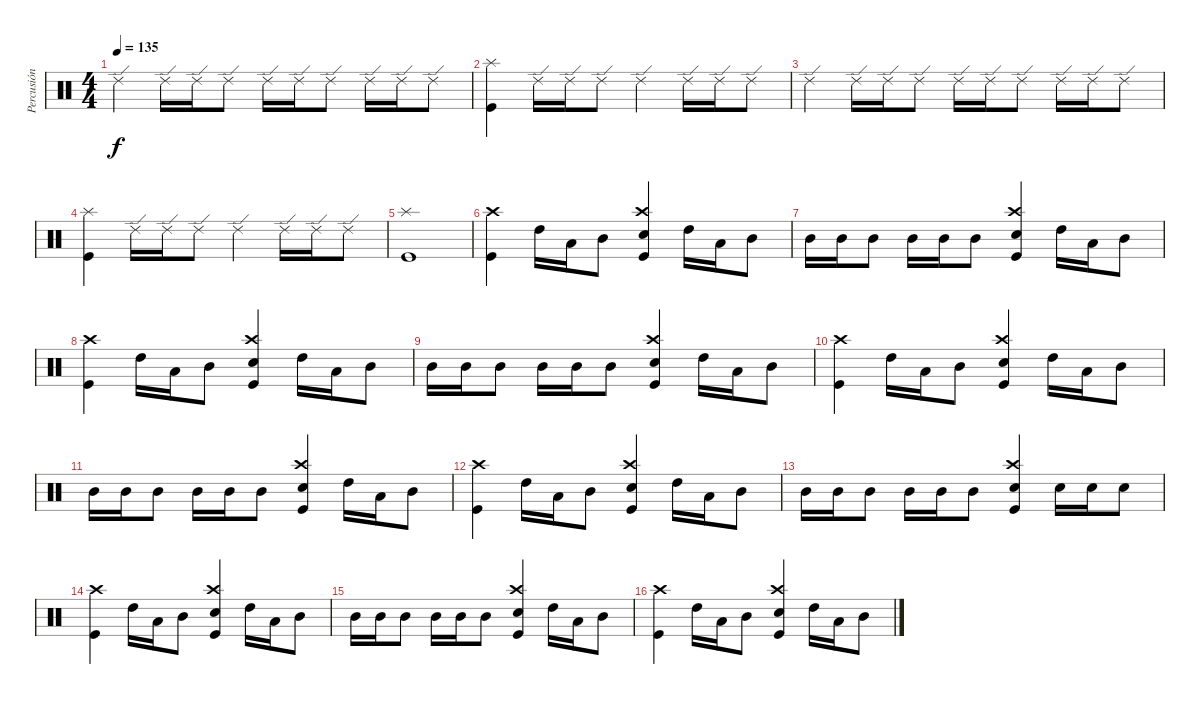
\track ("Percusión" "Percusión") {instrument percussion}
\staff {score}
\articulation defaults
\ts (4 4)
\tempo 135
\clef neutral
\ks c "Ride (edge) 2".4{dy f} "Ride (edge) 2".16 "Ride (edge) 2".16 "Ride (edge) 2".8 "Ride (edge) 2".16 "Ride (edge) 2".16 "Ride (edge) 2".8 "Ride (edge) 2".16 "Ride (edge) 2".16 "Ride (edge) 2".8
|
("Splash (hit)" "Kick (hit)").4 "Ride (edge) 2".16 "Ride (edge) 2".16 "Ride (edge) 2".8 "Ride (edge) 2".4 "Ride (edge) 2".16 "Ride (edge) 2".16 "Ride (edge) 2".8 |
"Ride (edge) 2".4 "Ride (edge) 2".16 "Ride (edge) 2".16 "Ride (edge) 2".8 "Ride (edge) 2".16 "Ride (edge) 2".16 "Ride (edge) 2".8 "Ride (edge) 2".16 "Ride (edge) 2".16 "Ride (edge) 2".8 |
("Splash (hit)" "Kick (hit)").4 "Ride (edge) 2".16 "Ride (edge) 2".16 "Ride (edge) 2".8 "Ride (edge) 2".4 "Ride (edge) 2".16 "Ride (edge) 2".16 "Ride (edge) 2".8 |
("Splash (hit)" "Kick (hit)").1 |
("Crash high (hit)" "Kick (hit)").4 "High Tom (hit)".16 "Low Floor Tom (hit)".16 "Mid Tom (hit)".8 ("Crash high (hit)" "Kick (hit)" "Electric Snare (hit)").4 "High Tom (hit)".16 "Low Floor Tom (hit)".16 "Mid Tom (hit)".8 |
"Mid Tom (hit)".16 "Mid Tom (hit)".16 "Mid Tom (hit)".8 "Mid Tom (hit)".16 "Mid Tom (hit)".16 "Mid Tom (hit)".8 ("Crash high (hit)" "Kick (hit)" "Electric Snare (hit)").4 "High Tom (hit)".16 "Low Floor Tom (hit)".16 "Mid Tom (hit)".8 |
("Crash high (hit)" "Kick (hit)").4 "High Tom (hit)".16 "Low Floor Tom (hit)".16 "Mid Tom (hit)".8 ("Crash high (hit)" "Kick (hit)" "Electric Snare (hit)").4 "High Tom (hit)".16 "Low Floor Tom (hit)".16 "Mid Tom (hit)".8 |
"Mid Tom (hit)".16 "Mid Tom (hit)".16 "Mid Tom (hit)".8 "Mid Tom (hit)".16 "Mid Tom (hit)".16 "Mid Tom (hit)".8 ("Crash high (hit)" "Kick (hit)" "Electric Snare (hit)").4 "High Tom (hit)".16 "Low Floor Tom (hit)".16 "Mid Tom (hit)".8 |
("Crash high (hit)" "Kick (hit)").4 "High Tom (hit)".16 "Low Floor Tom (hit)".16 "Mid Tom (hit)".8 ("Crash high (hit)" "Kick (hit)" "Electric Snare (hit)").4 "High Tom (hit)".16 "Low Floor Tom (hit)".16 "Mid Tom (hit)".8 |
"Mid Tom (hit)".16 "Mid Tom (hit)".16 "Mid Tom (hit)".8 "Mid Tom (hit)".16 "Mid Tom (hit)".16 "Mid Tom (hit)".8 ("Crash high (hit)" "Kick (hit)" "Electric Snare (hit)").4 "High Tom (hit)".16 "Low Floor Tom (hit)".16 "Mid Tom (hit)".8 |
("Crash high (hit)" "Kick (hit)").4 "High Tom (hit)".16 "Low Floor Tom (hit)".16 "Mid Tom (hit)".8 ("Crash high (hit)" "Kick (hit)" "Electric Snare (hit)").4 "High Tom (hit)".16 "Low Floor Tom (hit)".16 "Mid Tom (hit)".8 |
"Mid Tom (hit)".16 "Mid Tom (hit)".16 "Mid Tom (hit)".8 "Mid Tom (hit)".16 "Mid Tom (hit)".16 "Mid Tom (hit)".8 ("Crash high (hit)" "Kick (hit)" "Electric Snare (hit)").4 "Electric Snare (hit)".16 "Electric Snare (hit)".16 "Electric Snare (hit)".8 |
("Crash high (hit)" "Kick (hit)").4 "High Tom (hit)".16 "Low Floor Tom (hit)".16 "Mid Tom (hit)".8 ("Crash high (hit)" "Kick (hit)" "Electric Snare (hit)").4 "High Tom (hit)".16 "Low Floor Tom (hit)".16 "Mid Tom (hit)".8 |
"Mid Tom (hit)".16 "Mid Tom (hit)".16 "Mid Tom (hit)".8 "Mid Tom (hit)".16 "Mid Tom (hit)".16 "Mid Tom (hit)".8 ("Crash high (hit)" "Kick (hit)" "Electric Snare (hit)").4 "High Tom (hit)".16 "Low Floor Tom (hit)".16 "Mid Tom (hit)".8 |
("Crash high (hit)" "Kick (hit)").4 "High Tom (hit)".16 "Low Floor Tom (hit)".16 "Mid Tom (hit)".8 ("Crash high (hit)" "Kick (hit)" "Electric Snare (hit)").4 "High Tom (hit)".16 "Low Floor Tom (hit)".16 "Mid Tom (hit)".8
